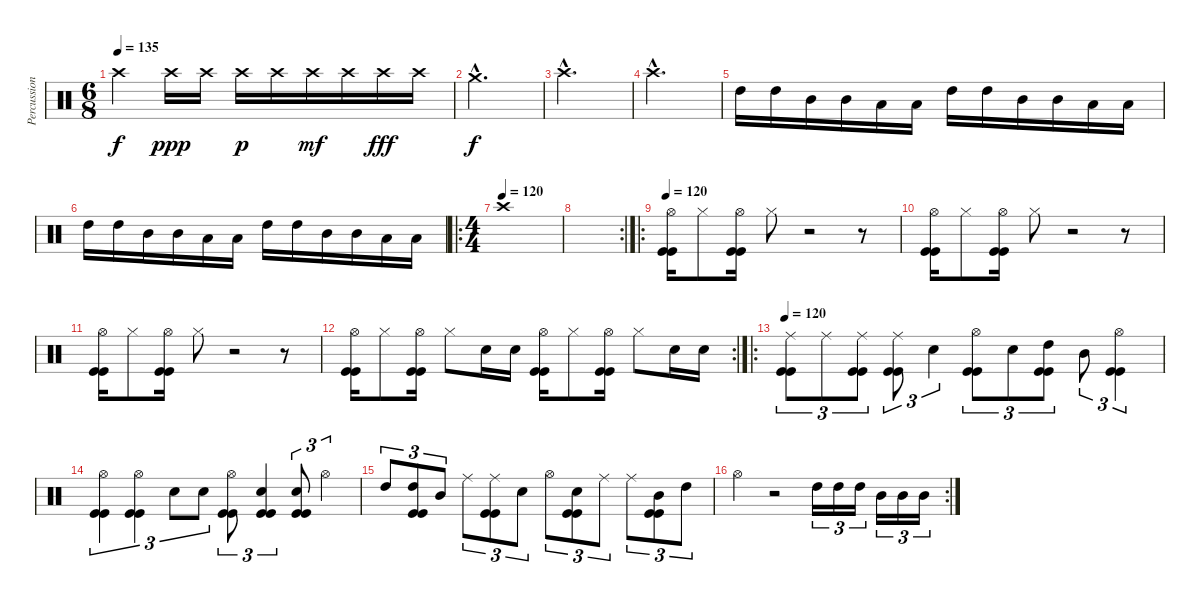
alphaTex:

\track ("Percussion" "Percussion") {instrument percussion}
\staff {score}
\articulation defaults
\ts (6 8)
\tempo 135
\clef neutral
\ks c "Crash high (hit)".4{dy f} "Crash high (hit)".16{dy ppp} "Crash high (hit)".16 "Crash high (hit)".16{dy p} "Crash high (hit)".16 "Crash high (hit)".16{dy mf} "Crash high (hit)".16 "Crash high (hit)".16{dy fff} "Crash high (hit)".16
|
"Crash medium (hit)"{hac}.2{d dy f} |
"Crash high (hit)"{hac}.2{d} |
"Crash high (hit)"{hac}.2{d} |
"High Tom (hit)".16 "High Tom (hit)".16 "Mid Tom (hit)".16 "Mid Tom (hit)".16 "Low Tom (hit)".16 "Low Tom (hit)".16 "High Tom (hit)".16 "High Tom (hit)".16 "Mid Tom (hit)".16 "Mid Tom (hit)".16 "Low Tom (hit)".16 "Low Tom (hit)".16 |
"High Tom (hit)".16 "High Tom (hit)".16 "Mid Tom (hit)".16 "Mid Tom (hit)".16 "Low Tom (hit)".16 "Low Tom (hit)".16 "High Tom (hit)".16 "High Tom (hit)".16 "Mid Tom (hit)".16 "Mid Tom (hit)".16 "Low Tom (hit)".16 "Low Tom (hit)".16 |
\ro
\ts (4 4)
\tempo (120)
"Crash high (hit)".1 |
\rc 2
|
\ro
\tempo 120
("Hi-Hat (open)" "Kick (hit)" "Kick (hit)").16 "Hi-Hat (closed)".8 ("Hi-Hat (open)" "Kick (hit)" "Kick (hit)").16 "Hi-Hat (closed)".8 r.2 r.8 |
("Hi-Hat (open)" "Kick (hit)" "Kick (hit)").16 "Hi-Hat (closed)".8 ("Hi-Hat (open)" "Kick (hit)" "Kick (hit)").16 "Hi-Hat (closed)".8 r.2 r.8 |
("Hi-Hat (open)" "Kick (hit)" "Kick (hit)").16 "Hi-Hat (closed)".8 ("Hi-Hat (open)" "Kick (hit)" "Kick (hit)").16 "Hi-Hat (closed)".8 r.2 r.8 |
\rc 2
("Hi-Hat (open)" "Kick (hit)" "Kick (hit)").16 "Hi-Hat (closed)".8 ("Hi-Hat (open)" "Kick (hit)" "Kick (hit)").16 "Hi-Hat (closed)".8 "Snare (hit) 2".16 "Snare (hit) 2".16 ("Hi-Hat (open)" "Kick (hit)" "Kick (hit)").16 "Hi-Hat (closed)".8 ("Hi-Hat (open)" "Kick (hit)" "Kick (hit)").16 "Hi-Hat (closed)".8 "Snare (hit) 2".16 "Snare (hit) 2".16 |
\ro
\tempo 120
("Ride (middle)" "Kick (hit)" "Kick (hit)").8{tu (3 2)} "Ride (middle)".8{tu (3 2)} ("Ride (middle)" "Kick (hit)" "Kick (hit)").8{tu (3 2)} ("Ride (middle)" "Kick (hit)" "Kick (hit)").8{tu (3 2)} "Snare (hit) 2".4{tu (3 2)} ("Hi-Hat (open)" "Kick (hit)" "Kick (hit)").8{tu (3 2)} "Snare (hit) 2".8{tu (3 2)} ("High Tom (hit)" "Kick (hit)" "Kick (hit)").8{tu (3 2)} "Mid Tom (hit)".8{tu (3 2)} ("Hi-Hat (open)" "Kick (hit)" "Kick (hit)").4{tu (3 2)} |
("Hi-Hat (open)" "Kick (hit)" "Kick (hit)").4{tu (3 2)} ("Hi-Hat (open)" "Kick (hit)" "Kick (hit)").4{tu (3 2)} "Snare (hit) 2".8{tu (3 2)} "Snare (hit) 2".8{tu (3 2)} ("Hi-Hat (open)" "Kick (hit)" "Kick (hit)").8{tu (3 2)} ("Snare (hit) 2" "Kick (hit)" "Kick (hit)").4{tu (3 2)} ("Snare (hit) 2" "Kick (hit)" "Kick (hit)").8{tu (3 2)} "Hi-Hat (open)".4{tu (3 2)} |
"High Tom (hit)".8{tu (3 2)} ("High Tom (hit)" "Kick (hit)" "Kick (hit)").8{tu (3 2)} "Mid Tom (hit)".8{tu (3 2)} "Ride (middle)".8{tu (3 2)} ("Ride (middle)" "Kick (hit)" "Kick (hit)").8{tu (3 2)} "Snare (hit) 2".8{tu (3 2)} "Hi-Hat (open)".8{tu (3 2)} ("Snare (hit) 2" "Kick (hit)" "Kick (hit)").8{tu (3 2)} "Ride (middle)".8{tu (3 2)} "Ride (middle)".8{tu (3 2)} ("Mid Tom (hit)" "Kick (hit)" "Kick (hit)").8{tu (3 2)} "High Tom (hit)".8{tu (3 2)} |
\rc 2 "Hi-Hat (open)".4
r.2 "High Tom (hit)".16{tu (3 2)} "High Tom (hit)".16{tu (3 2)} "High Tom (hit)".16{tu (3 2)} "Mid Tom (hit)".16{tu (3 2)} "Mid Tom (hit)".16{tu (3 2)} "Mid Tom (hit)".16{tu (3 2)}
